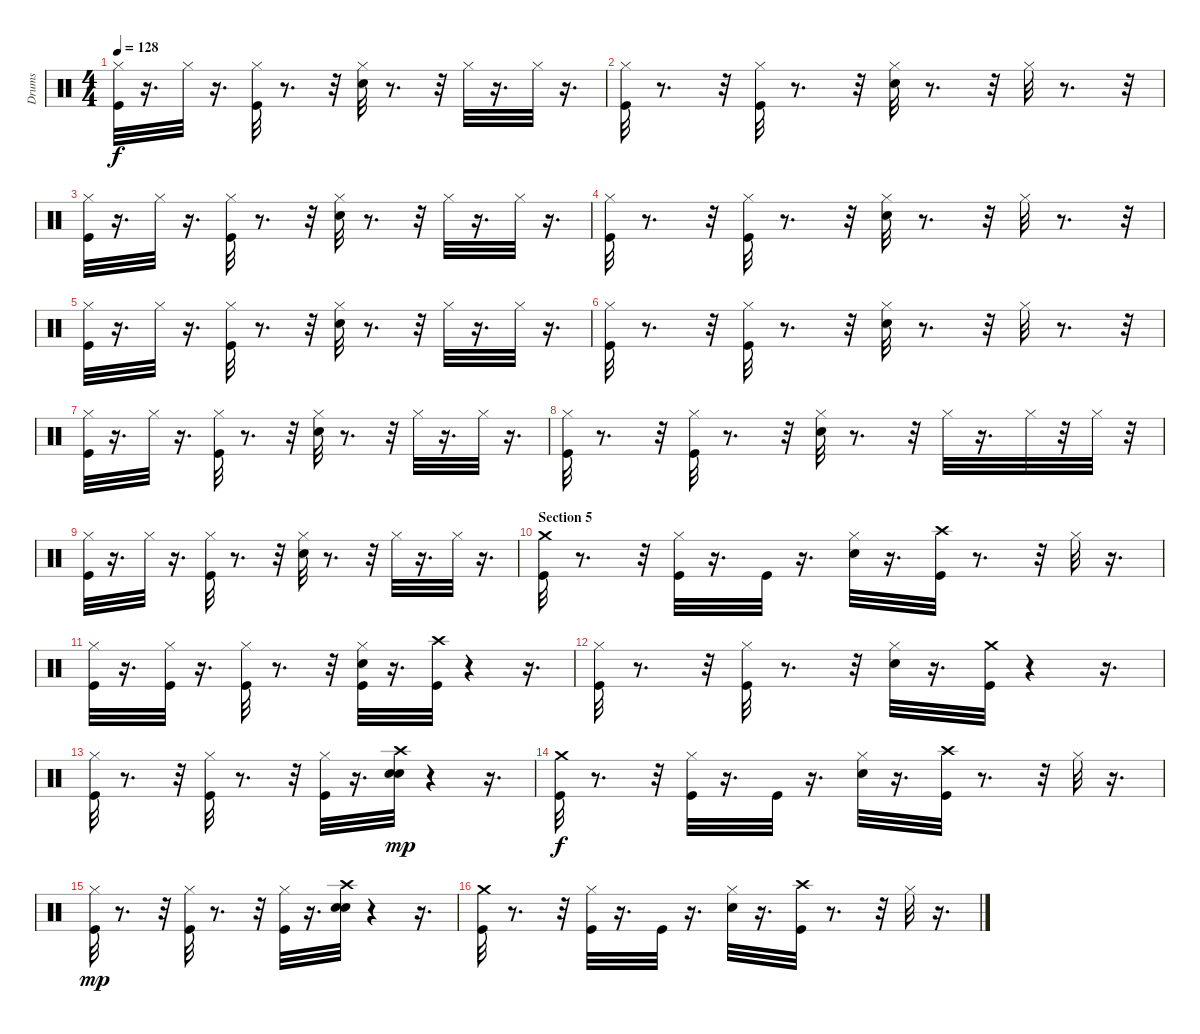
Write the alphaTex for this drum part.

\track ("Drums" "Drums") {instrument percussion}
\staff {score}
\articulation defaults
\ts (4 4)
\tempo 128
\clef neutral
\ks c
("Kick (hit)" "Hi-Hat (closed)").32{dy f} r.16{d} "Hi-Hat (closed)".32 r.16{d} ("Kick (hit)" "Hi-Hat (closed)").32 r.8{d} r.32 ("Snare (hit) 2" "Hi-Hat (closed)").32 r.8{d} r.32 "Hi-Hat (closed)".32 r.16{d} "Hi-Hat (closed)".32 r.16{d} |
("Kick (hit)" "Hi-Hat (closed)").32 r.8{d} r.32 ("Kick (hit)" "Hi-Hat (closed)").32 r.8{d} r.32 ("Snare (hit) 2" "Hi-Hat (closed)").32 r.8{d} r.32 "Hi-Hat (closed)".32 r.8{d} r.32 |
("Kick (hit)" "Hi-Hat (closed)").32 r.16{d} "Hi-Hat (closed)".32 r.16{d} ("Kick (hit)" "Hi-Hat (closed)").32 r.8{d} r.32 ("Snare (hit) 2" "Hi-Hat (closed)").32 r.8{d} r.32 "Hi-Hat (closed)".32 r.16{d} "Hi-Hat (closed)".32 r.16{d} |
("Kick (hit)" "Hi-Hat (closed)").32 r.8{d} r.32 ("Kick (hit)" "Hi-Hat (closed)").32 r.8{d} r.32 ("Snare (hit) 2" "Hi-Hat (closed)").32 r.8{d} r.32 "Hi-Hat (closed)".32 r.8{d} r.32 |
("Kick (hit)" "Hi-Hat (closed)").32 r.16{d} "Hi-Hat (closed)".32 r.16{d} ("Kick (hit)" "Hi-Hat (closed)").32 r.8{d} r.32 ("Snare (hit) 2" "Hi-Hat (closed)").32 r.8{d} r.32 "Hi-Hat (closed)".32 r.16{d} "Hi-Hat (closed)".32 r.16{d} |
("Kick (hit)" "Hi-Hat (closed)").32 r.8{d} r.32 ("Kick (hit)" "Hi-Hat (closed)").32 r.8{d} r.32 ("Snare (hit) 2" "Hi-Hat (closed)").32 r.8{d} r.32 "Hi-Hat (closed)".32 r.8{d} r.32 |
("Kick (hit)" "Hi-Hat (closed)").32 r.16{d} "Hi-Hat (closed)".32 r.16{d} ("Kick (hit)" "Hi-Hat (closed)").32 r.8{d} r.32 ("Snare (hit) 2" "Hi-Hat (closed)").32 r.8{d} r.32 "Hi-Hat (closed)".32 r.16{d} "Hi-Hat (closed)".32 r.16{d} |
("Kick (hit)" "Hi-Hat (closed)").32 r.8{d} r.32 ("Kick (hit)" "Hi-Hat (closed)").32 r.8{d} r.32 ("Snare (hit) 2" "Hi-Hat (closed)").32 r.8{d} r.32 "Hi-Hat (closed)".32 r.16{d} "Hi-Hat (closed)".32 r.32 "Hi-Hat (closed)".32 r.32 |
("Kick (hit)" "Hi-Hat (closed)").32 r.16{d} "Hi-Hat (closed)".32 r.16{d} ("Kick (hit)" "Hi-Hat (closed)").32 r.8{d} r.32 ("Snare (hit) 2" "Hi-Hat (closed)").32 r.8{d} r.32 "Hi-Hat (closed)".32 r.16{d} "Hi-Hat (closed)".32 r.16{d} |
\section ("" "Section 5")
("Crash medium (hit)" "Kick (hit)").32 r.8{d} r.32 ("Hi-Hat (closed)" "Kick (hit)").32 r.16{d} "Kick (hit)".32 r.16{d} ("Hi-Hat (closed)" "Snare (hit) 2").32 r.16{d} ("Crash high (hit)" "Kick (hit)").32 r.8{d} r.32 "Hi-Hat (closed)".32 r.16{d} |
("Kick (hit)" "Hi-Hat (closed)").32 r.16{d} ("Kick (hit)" "Hi-Hat (closed)").32 r.16{d} ("Kick (hit)" "Hi-Hat (closed)").32 r.8{d} r.32 ("Snare (hit) 2" "Kick (hit)" "Hi-Hat (closed)").32 r.16{d} ("Kick (hit)" "Crash high (hit)").32 r.4 r.16{d} |
("Kick (hit)" "Hi-Hat (closed)").32 r.8{d} r.32 ("Kick (hit)" "Hi-Hat (closed)").32 r.8{d} r.32 ("Snare (hit) 2" "Hi-Hat (closed)").32 r.16{d} ("Kick (hit)" "Crash medium (hit)").32 r.4 r.16{d} |
("Hi-Hat (closed)" "Kick (hit)").32 r.8{d} r.32 ("Hi-Hat (closed)" "Kick (hit)").32 r.8{d} r.32 ("Hi-Hat (closed)" "Kick (hit)").32 r.16{d} ("Electric Snare (hit)" "Crash high (hit)" "Snare (hit) 2").32{dy mp} r.4 r.16{d} |
("Kick (hit)" "Crash medium (hit)").32{dy f} r.8{d} r.32 ("Hi-Hat (closed)" "Kick (hit)").32 r.16{d} "Kick (hit)".32 r.16{d} ("Hi-Hat (closed)" "Snare (hit) 2").32 r.16{d} ("Crash high (hit)" "Kick (hit)").32 r.8{d} r.32 "Hi-Hat (closed)".32 r.16{d} |
("Hi-Hat (closed)" "Kick (hit)").32{dy mp} r.8{d} r.32 ("Hi-Hat (closed)" "Kick (hit)").32 r.8{d} r.32 ("Hi-Hat (closed)" "Kick (hit)").32 r.16{d} ("Electric Snare (hit)" "Crash high (hit)" "Snare (hit) 2").32 r.4 r.16{d} |
("Kick (hit)" "Crash medium (hit)").32 r.8{d} r.32 ("Hi-Hat (closed)" "Kick (hit)").32 r.16{d} "Kick (hit)".32 r.16{d} ("Hi-Hat (closed)" "Snare (hit) 2").32 r.16{d} ("Crash high (hit)" "Kick (hit)").32 r.8{d} r.32 "Hi-Hat (closed)".32 r.16{d}
